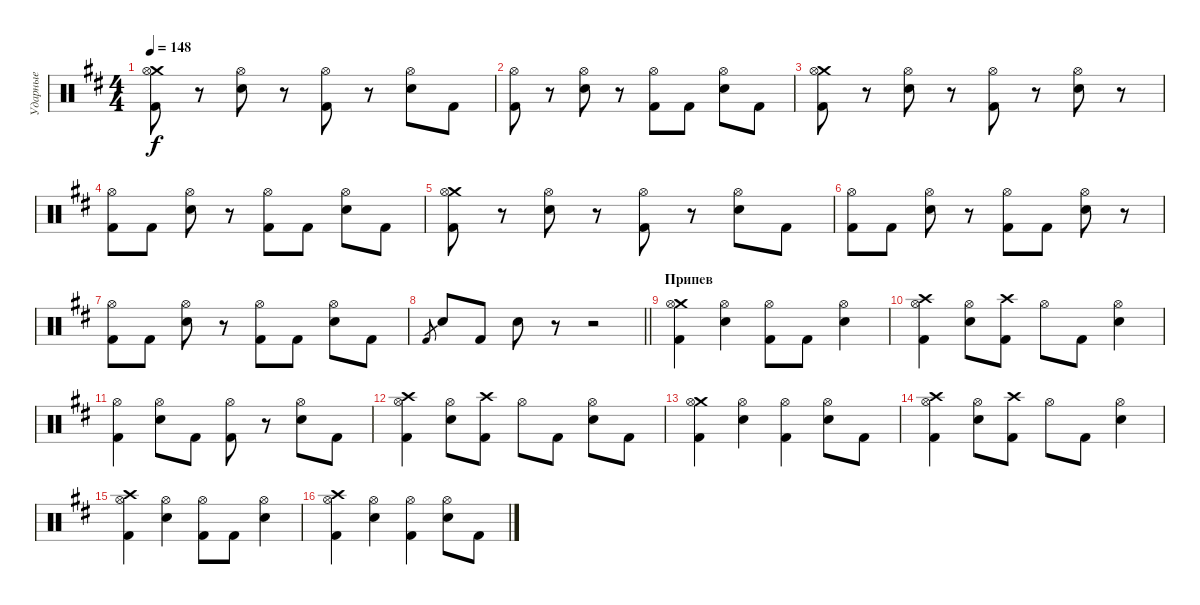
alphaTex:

\track ("Ударные" "Ударные") {instrument percussion}
\staff {score}
\articulation defaults
\ts (4 4)
\tempo 148
\clef neutral
\ks bminor
("Crash medium (hit)" "Kick (hit) 2" "Hi-Hat (open)").8{dy f} r.8 ("Electric Snare (hit)" "Hi-Hat (open)").8 r.8 ("Kick (hit) 2" "Hi-Hat (open)").8 r.8 ("Electric Snare (hit)" "Hi-Hat (open)").8 "Kick (hit) 2".8 |
("Kick (hit) 2" "Hi-Hat (open)").8 r.8 ("Electric Snare (hit)" "Hi-Hat (open)").8 r.8 ("Kick (hit) 2" "Hi-Hat (open)").8 "Kick (hit) 2".8 ("Electric Snare (hit)" "Hi-Hat (open)").8 "Kick (hit) 2".8 |
("Crash medium (hit)" "Kick (hit) 2" "Hi-Hat (open)").8 r.8 ("Electric Snare (hit)" "Hi-Hat (open)").8 r.8 ("Kick (hit) 2" "Hi-Hat (open)").8 r.8 ("Electric Snare (hit)" "Hi-Hat (open)").8 r.8 |
("Kick (hit) 2" "Hi-Hat (open)").8 "Kick (hit) 2".8 ("Electric Snare (hit)" "Hi-Hat (open)").8 r.8 ("Kick (hit) 2" "Hi-Hat (open)").8 "Kick (hit) 2".8 ("Electric Snare (hit)" "Hi-Hat (open)").8 "Kick (hit) 2".8 |
("Crash medium (hit)" "Kick (hit) 2" "Hi-Hat (open)").8 r.8 ("Electric Snare (hit)" "Hi-Hat (open)").8 r.8 ("Kick (hit) 2" "Hi-Hat (open)").8 r.8 ("Electric Snare (hit)" "Hi-Hat (open)").8 "Kick (hit) 2".8 |
("Kick (hit) 2" "Hi-Hat (open)").8 "Kick (hit) 2".8 ("Electric Snare (hit)" "Hi-Hat (open)").8 r.8 ("Kick (hit) 2" "Hi-Hat (open)").8 "Kick (hit) 2".8 ("Electric Snare (hit)" "Hi-Hat (open)").8 r.8 |
("Kick (hit) 2" "Hi-Hat (open)").8 "Kick (hit) 2".8 ("Electric Snare (hit)" "Hi-Hat (open)").8 r.8 ("Kick (hit) 2" "Hi-Hat (open)").8 "Kick (hit) 2".8 ("Electric Snare (hit)" "Hi-Hat (open)").8 "Kick (hit) 2".8 |
\barLineRight lightlight "Kick (hit) 2".8{gr} "Electric Snare (hit)".8 "Kick (hit) 2".8 "Electric Snare (hit)".8
r.8 r.2 |
\section ("" "Припев")
("Crash medium (hit)" "Kick (hit) 2" "Hi-Hat (open)").4 ("Electric Snare (hit)" "Hi-Hat (open)").4 ("Kick (hit) 2" "Hi-Hat (open)").8 "Kick (hit) 2".8 ("Electric Snare (hit)" "Hi-Hat (open)").4 |
("Crash high (hit)" "Kick (hit) 2" "Hi-Hat (open)").4 ("Electric Snare (hit)" "Hi-Hat (open)").8 ("Crash high (hit)" "Kick (hit) 2").8 "Hi-Hat (open)".8 "Kick (hit) 2".8 ("Electric Snare (hit)" "Hi-Hat (open)").4 |
("Kick (hit) 2" "Hi-Hat (open)").4 ("Electric Snare (hit)" "Hi-Hat (open)").8 "Kick (hit) 2".8 ("Kick (hit) 2" "Hi-Hat (open)").8 r.8 ("Electric Snare (hit)" "Hi-Hat (open)").8 "Kick (hit) 2".8 |
("Crash high (hit)" "Kick (hit) 2" "Hi-Hat (open)").4 ("Electric Snare (hit)" "Hi-Hat (open)").8 ("Crash high (hit)" "Kick (hit) 2").8 "Hi-Hat (open)".8 "Kick (hit) 2".8 ("Electric Snare (hit)" "Hi-Hat (open)").8 "Kick (hit) 2".8 |
("Crash medium (hit)" "Kick (hit) 2" "Hi-Hat (open)").4 ("Electric Snare (hit)" "Hi-Hat (open)").4 ("Kick (hit) 2" "Hi-Hat (open)").4 ("Electric Snare (hit)" "Hi-Hat (open)").8 "Kick (hit) 2".8 |
("Crash high (hit)" "Kick (hit) 2" "Hi-Hat (open)").4 ("Electric Snare (hit)" "Hi-Hat (open)").8 ("Crash high (hit)" "Kick (hit) 2").8 "Hi-Hat (open)".8 "Kick (hit) 2".8 ("Electric Snare (hit)" "Hi-Hat (open)").4 |
("Crash high (hit)" "Kick (hit) 2" "Hi-Hat (open)").4 ("Electric Snare (hit)" "Hi-Hat (open)").4 ("Kick (hit) 2" "Hi-Hat (open)").8 "Kick (hit) 2".8 ("Electric Snare (hit)" "Hi-Hat (open)").4 |
("Crash high (hit)" "Kick (hit) 2" "Hi-Hat (open)").4 ("Electric Snare (hit)" "Hi-Hat (open)").4 ("Kick (hit) 2" "Hi-Hat (open)").4 ("Electric Snare (hit)" "Hi-Hat (open)").8 "Kick (hit) 2".8
